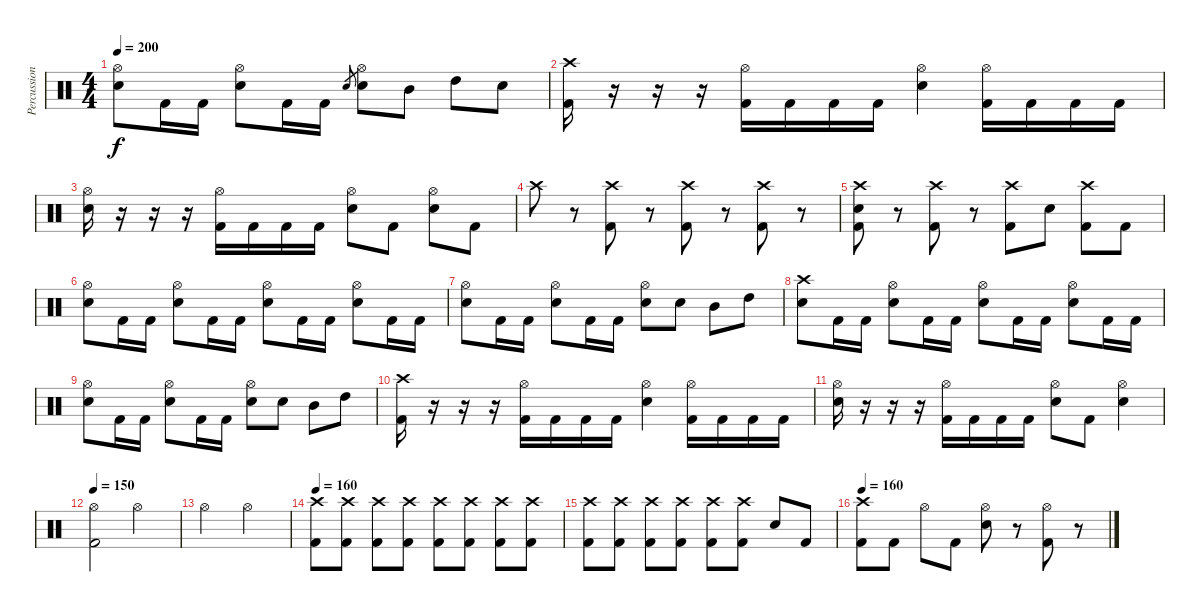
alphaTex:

\track ("Percussions" "Percussion") {instrument percussion}
\staff {score}
\articulation defaults
\ts (4 4)
\tempo 200
\clef neutral
\ks c
("Electric Snare (hit)" "Hi-Hat (open)").8{dy f} "Kick (hit) 2".16 "Kick (hit) 2".16 ("Electric Snare (hit)" "Hi-Hat (open)").8 "Kick (hit) 2".16 "Kick (hit) 2".16 "Electric Snare (hit)".8{gr} ("Electric Snare (hit)" "Hi-Hat (open)").8 "Mid Tom (hit)".8 "High Tom (hit)".8 "Electric Snare (hit)".8 |
("Kick (hit) 2" "Crash high (hit)").16 r.16 r.16 r.16 ("Kick (hit) 2" "Hi-Hat (open)").16 "Kick (hit) 2".16 "Kick (hit) 2".16 "Kick (hit) 2".16 ("Electric Snare (hit)" "Hi-Hat (open)").4 ("Kick (hit) 2" "Hi-Hat (open)").16 "Kick (hit) 2".16 "Kick (hit) 2".16 "Kick (hit) 2".16 |
("Electric Snare (hit)" "Hi-Hat (open)").16 r.16 r.16 r.16 ("Kick (hit) 2" "Hi-Hat (open)").16 "Kick (hit) 2".16 "Kick (hit) 2".16 "Kick (hit) 2".16 ("Electric Snare (hit)" "Hi-Hat (open)").8 "Kick (hit) 2".8 ("Electric Snare (hit)" "Hi-Hat (open)").8 "Kick (hit) 2".8 |
"Crash high (hit)".8 r.8 ("Kick (hit) 2" "Crash high (hit)").8 r.8 ("Kick (hit) 2" "Crash high (hit)").8 r.8 ("Kick (hit) 2" "Crash high (hit)").8 r.8 |
("Kick (hit) 2" "Electric Snare (hit)" "Crash high (hit)").8 r.8 ("Kick (hit) 2" "Crash high (hit)").8 r.8 ("Kick (hit) 2" "Crash high (hit)").8 "Electric Snare (hit)".8 ("Kick (hit) 2" "Crash high (hit)").8 "Kick (hit) 2".8 |
("Electric Snare (hit)" "Hi-Hat (open)").8 "Kick (hit) 2".16 "Kick (hit) 2".16 ("Electric Snare (hit)" "Hi-Hat (open)").8 "Kick (hit) 2".16 "Kick (hit) 2".16 ("Electric Snare (hit)" "Hi-Hat (open)").8 "Kick (hit) 2".16 "Kick (hit) 2".16 ("Electric Snare (hit)" "Hi-Hat (open)").8 "Kick (hit) 2".16 "Kick (hit) 2".16 |
("Electric Snare (hit)" "Hi-Hat (open)").8 "Kick (hit) 2".16 "Kick (hit) 2".16 ("Electric Snare (hit)" "Hi-Hat (open)").8 "Kick (hit) 2".16 "Kick (hit) 2".16 ("Electric Snare (hit)" "Hi-Hat (open)").8 "Electric Snare (hit)".8 "Mid Tom (hit)".8 "High Tom (hit)".8 |
("Electric Snare (hit)" "Crash high (hit)").8 "Kick (hit) 2".16 "Kick (hit) 2".16 ("Electric Snare (hit)" "Hi-Hat (open)").8 "Kick (hit) 2".16 "Kick (hit) 2".16 ("Electric Snare (hit)" "Hi-Hat (open)").8 "Kick (hit) 2".16 "Kick (hit) 2".16 ("Electric Snare (hit)" "Hi-Hat (open)").8 "Kick (hit) 2".16 "Kick (hit) 2".16 |
("Electric Snare (hit)" "Hi-Hat (open)").8 "Kick (hit) 2".16 "Kick (hit) 2".16 ("Electric Snare (hit)" "Hi-Hat (open)").8 "Kick (hit) 2".16 "Kick (hit) 2".16 ("Electric Snare (hit)" "Hi-Hat (open)").8 "Electric Snare (hit)".8 "Mid Tom (hit)".8 "High Tom (hit)".8 |
("Kick (hit) 2" "Crash high (hit)").16 r.16 r.16 r.16 ("Kick (hit) 2" "Hi-Hat (open)").16 "Kick (hit) 2".16 "Kick (hit) 2".16 "Kick (hit) 2".16 ("Electric Snare (hit)" "Hi-Hat (open)").4 ("Kick (hit) 2" "Hi-Hat (open)").16 "Kick (hit) 2".16 "Kick (hit) 2".16 "Kick (hit) 2".16 |
("Electric Snare (hit)" "Hi-Hat (open)").16 r.16 r.16 r.16 ("Kick (hit) 2" "Hi-Hat (open)").16 "Kick (hit) 2".16 "Kick (hit) 2".16 "Kick (hit) 2".16 ("Electric Snare (hit)" "Hi-Hat (open)").8 "Kick (hit) 2".8 ("Electric Snare (hit)" "Hi-Hat (open)").4 |
\tempo 150
("Kick (hit) 2" "Hi-Hat (open)").2 "Hi-Hat (open)".2 |
"Hi-Hat (open)".2 "Hi-Hat (open)".2 |
\tempo 160
("Kick (hit) 2" "Crash high (hit)").8 ("Kick (hit) 2" "Crash high (hit)").8 ("Kick (hit) 2" "Crash high (hit)").8 ("Kick (hit) 2" "Crash high (hit)").8 ("Kick (hit) 2" "Crash high (hit)").8 ("Kick (hit) 2" "Crash high (hit)").8 ("Kick (hit) 2" "Crash high (hit)").8 ("Kick (hit) 2" "Crash high (hit)").8 |
("Kick (hit) 2" "Crash high (hit)").8 ("Kick (hit) 2" "Crash high (hit)").8 ("Kick (hit) 2" "Crash high (hit)").8 ("Kick (hit) 2" "Crash high (hit)").8 ("Kick (hit) 2" "Crash high (hit)").8 ("Kick (hit) 2" "Crash high (hit)").8 "Electric Snare (hit)".8 "Kick (hit) 2".8 |
\tempo 160
("Kick (hit) 2" "Crash high (hit)").8 "Kick (hit) 2".8 "Hi-Hat (open)".8 "Kick (hit) 2".8 ("Electric Snare (hit)" "Hi-Hat (open)").8 r.8 ("Kick (hit) 2" "Hi-Hat (open)").8 r.8
